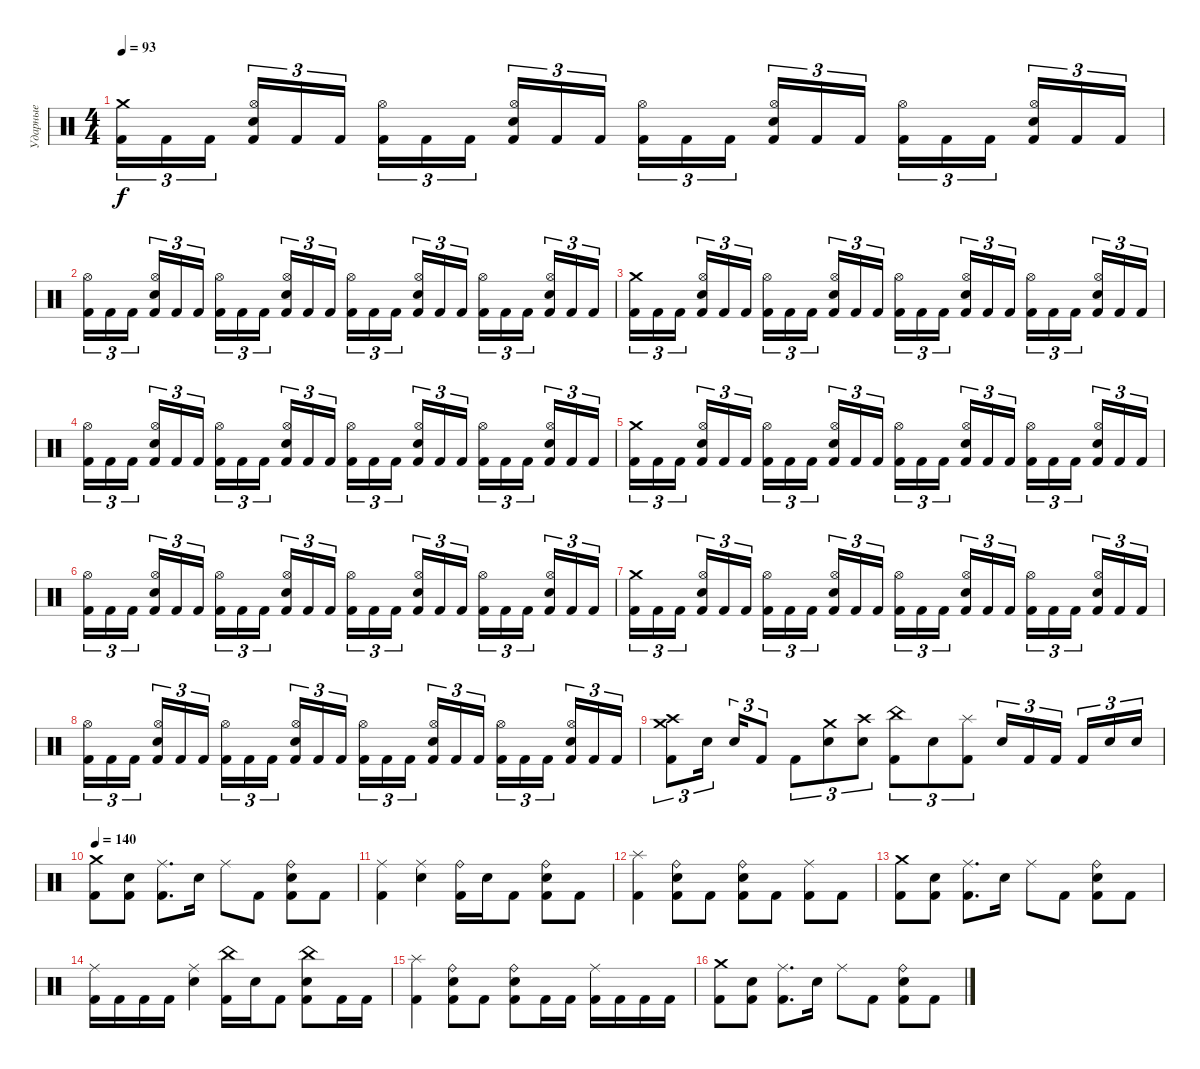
\track ("Ударные" "Ударные") {instrument percussion}
\staff {score}
\articulation defaults
\ts (4 4)
\tempo 93
\clef neutral
\ks c
("Crash medium (hit)" "Kick (hit) 2").16{tu (3 2) dy f} "Kick (hit) 2".16{tu (3 2)} "Kick (hit) 2".16{tu (3 2) beam splitsecondary} ("Hi-Hat (open)" "Electric Snare (hit)" "Kick (hit) 2").16{tu (3 2)} "Kick (hit) 2".16{tu (3 2)} "Kick (hit) 2".16{tu (3 2)} ("Hi-Hat (open)" "Kick (hit) 2").16{tu (3 2)} "Kick (hit) 2".16{tu (3 2)} "Kick (hit) 2".16{tu (3 2) beam splitsecondary} ("Hi-Hat (open)" "Electric Snare (hit)" "Kick (hit) 2").16{tu (3 2)} "Kick (hit) 2".16{tu (3 2)} "Kick (hit) 2".16{tu (3 2)} ("Hi-Hat (open)" "Kick (hit) 2").16{tu (3 2)} "Kick (hit) 2".16{tu (3 2)} "Kick (hit) 2".16{tu (3 2) beam splitsecondary} ("Hi-Hat (open)" "Electric Snare (hit)" "Kick (hit) 2").16{tu (3 2)} "Kick (hit) 2".16{tu (3 2)} "Kick (hit) 2".16{tu (3 2)} ("Hi-Hat (open)" "Kick (hit) 2").16{tu (3 2)} "Kick (hit) 2".16{tu (3 2)} "Kick (hit) 2".16{tu (3 2) beam splitsecondary} ("Hi-Hat (open)" "Electric Snare (hit)" "Kick (hit) 2").16{tu (3 2)} "Kick (hit) 2".16{tu (3 2)} "Kick (hit) 2".16{tu (3 2)} |
("Hi-Hat (open)" "Kick (hit) 2").16{tu (3 2)} "Kick (hit) 2".16{tu (3 2)} "Kick (hit) 2".16{tu (3 2) beam splitsecondary} ("Hi-Hat (open)" "Electric Snare (hit)" "Kick (hit) 2").16{tu (3 2)} "Kick (hit) 2".16{tu (3 2)} "Kick (hit) 2".16{tu (3 2)} ("Hi-Hat (open)" "Kick (hit) 2").16{tu (3 2)} "Kick (hit) 2".16{tu (3 2)} "Kick (hit) 2".16{tu (3 2) beam splitsecondary} ("Hi-Hat (open)" "Electric Snare (hit)" "Kick (hit) 2").16{tu (3 2)} "Kick (hit) 2".16{tu (3 2)} "Kick (hit) 2".16{tu (3 2)} ("Hi-Hat (open)" "Kick (hit) 2").16{tu (3 2)} "Kick (hit) 2".16{tu (3 2)} "Kick (hit) 2".16{tu (3 2) beam splitsecondary} ("Hi-Hat (open)" "Electric Snare (hit)" "Kick (hit) 2").16{tu (3 2)} "Kick (hit) 2".16{tu (3 2)} "Kick (hit) 2".16{tu (3 2)} ("Hi-Hat (open)" "Kick (hit) 2").16{tu (3 2)} "Kick (hit) 2".16{tu (3 2)} "Kick (hit) 2".16{tu (3 2) beam splitsecondary} ("Hi-Hat (open)" "Electric Snare (hit)" "Kick (hit) 2").16{tu (3 2)} "Kick (hit) 2".16{tu (3 2)} "Kick (hit) 2".16{tu (3 2)} |
("Crash medium (hit)" "Kick (hit) 2").16{tu (3 2)} "Kick (hit) 2".16{tu (3 2)} "Kick (hit) 2".16{tu (3 2) beam splitsecondary} ("Hi-Hat (open)" "Electric Snare (hit)" "Kick (hit) 2").16{tu (3 2)} "Kick (hit) 2".16{tu (3 2)} "Kick (hit) 2".16{tu (3 2)} ("Hi-Hat (open)" "Kick (hit) 2").16{tu (3 2)} "Kick (hit) 2".16{tu (3 2)} "Kick (hit) 2".16{tu (3 2) beam splitsecondary} ("Hi-Hat (open)" "Electric Snare (hit)" "Kick (hit) 2").16{tu (3 2)} "Kick (hit) 2".16{tu (3 2)} "Kick (hit) 2".16{tu (3 2)} ("Hi-Hat (open)" "Kick (hit) 2").16{tu (3 2)} "Kick (hit) 2".16{tu (3 2)} "Kick (hit) 2".16{tu (3 2) beam splitsecondary} ("Hi-Hat (open)" "Electric Snare (hit)" "Kick (hit) 2").16{tu (3 2)} "Kick (hit) 2".16{tu (3 2)} "Kick (hit) 2".16{tu (3 2)} ("Hi-Hat (open)" "Kick (hit) 2").16{tu (3 2)} "Kick (hit) 2".16{tu (3 2)} "Kick (hit) 2".16{tu (3 2) beam splitsecondary} ("Hi-Hat (open)" "Electric Snare (hit)" "Kick (hit) 2").16{tu (3 2)} "Kick (hit) 2".16{tu (3 2)} "Kick (hit) 2".16{tu (3 2)} |
("Hi-Hat (open)" "Kick (hit) 2").16{tu (3 2)} "Kick (hit) 2".16{tu (3 2)} "Kick (hit) 2".16{tu (3 2) beam splitsecondary} ("Hi-Hat (open)" "Electric Snare (hit)" "Kick (hit) 2").16{tu (3 2)} "Kick (hit) 2".16{tu (3 2)} "Kick (hit) 2".16{tu (3 2)} ("Hi-Hat (open)" "Kick (hit) 2").16{tu (3 2)} "Kick (hit) 2".16{tu (3 2)} "Kick (hit) 2".16{tu (3 2) beam splitsecondary} ("Hi-Hat (open)" "Electric Snare (hit)" "Kick (hit) 2").16{tu (3 2)} "Kick (hit) 2".16{tu (3 2)} "Kick (hit) 2".16{tu (3 2)} ("Hi-Hat (open)" "Kick (hit) 2").16{tu (3 2)} "Kick (hit) 2".16{tu (3 2)} "Kick (hit) 2".16{tu (3 2) beam splitsecondary} ("Hi-Hat (open)" "Electric Snare (hit)" "Kick (hit) 2").16{tu (3 2)} "Kick (hit) 2".16{tu (3 2)} "Kick (hit) 2".16{tu (3 2)} ("Hi-Hat (open)" "Kick (hit) 2").16{tu (3 2)} "Kick (hit) 2".16{tu (3 2)} "Kick (hit) 2".16{tu (3 2) beam splitsecondary} ("Hi-Hat (open)" "Electric Snare (hit)" "Kick (hit) 2").16{tu (3 2)} "Kick (hit) 2".16{tu (3 2)} "Kick (hit) 2".16{tu (3 2)} |
("Crash medium (hit)" "Kick (hit) 2").16{tu (3 2)} "Kick (hit) 2".16{tu (3 2)} "Kick (hit) 2".16{tu (3 2) beam splitsecondary} ("Hi-Hat (open)" "Electric Snare (hit)" "Kick (hit) 2").16{tu (3 2)} "Kick (hit) 2".16{tu (3 2)} "Kick (hit) 2".16{tu (3 2)} ("Hi-Hat (open)" "Kick (hit) 2").16{tu (3 2)} "Kick (hit) 2".16{tu (3 2)} "Kick (hit) 2".16{tu (3 2) beam splitsecondary} ("Hi-Hat (open)" "Electric Snare (hit)" "Kick (hit) 2").16{tu (3 2)} "Kick (hit) 2".16{tu (3 2)} "Kick (hit) 2".16{tu (3 2)} ("Hi-Hat (open)" "Kick (hit) 2").16{tu (3 2)} "Kick (hit) 2".16{tu (3 2)} "Kick (hit) 2".16{tu (3 2) beam splitsecondary} ("Hi-Hat (open)" "Electric Snare (hit)" "Kick (hit) 2").16{tu (3 2)} "Kick (hit) 2".16{tu (3 2)} "Kick (hit) 2".16{tu (3 2)} ("Hi-Hat (open)" "Kick (hit) 2").16{tu (3 2)} "Kick (hit) 2".16{tu (3 2)} "Kick (hit) 2".16{tu (3 2) beam splitsecondary} ("Hi-Hat (open)" "Electric Snare (hit)" "Kick (hit) 2").16{tu (3 2)} "Kick (hit) 2".16{tu (3 2)} "Kick (hit) 2".16{tu (3 2)} |
("Hi-Hat (open)" "Kick (hit) 2").16{tu (3 2)} "Kick (hit) 2".16{tu (3 2)} "Kick (hit) 2".16{tu (3 2) beam splitsecondary} ("Hi-Hat (open)" "Electric Snare (hit)" "Kick (hit) 2").16{tu (3 2)} "Kick (hit) 2".16{tu (3 2)} "Kick (hit) 2".16{tu (3 2)} ("Hi-Hat (open)" "Kick (hit) 2").16{tu (3 2)} "Kick (hit) 2".16{tu (3 2)} "Kick (hit) 2".16{tu (3 2) beam splitsecondary} ("Hi-Hat (open)" "Electric Snare (hit)" "Kick (hit) 2").16{tu (3 2)} "Kick (hit) 2".16{tu (3 2)} "Kick (hit) 2".16{tu (3 2)} ("Hi-Hat (open)" "Kick (hit) 2").16{tu (3 2)} "Kick (hit) 2".16{tu (3 2)} "Kick (hit) 2".16{tu (3 2) beam splitsecondary} ("Hi-Hat (open)" "Electric Snare (hit)" "Kick (hit) 2").16{tu (3 2)} "Kick (hit) 2".16{tu (3 2)} "Kick (hit) 2".16{tu (3 2)} ("Hi-Hat (open)" "Kick (hit) 2").16{tu (3 2)} "Kick (hit) 2".16{tu (3 2)} "Kick (hit) 2".16{tu (3 2) beam splitsecondary} ("Hi-Hat (open)" "Electric Snare (hit)" "Kick (hit) 2").16{tu (3 2)} "Kick (hit) 2".16{tu (3 2)} "Kick (hit) 2".16{tu (3 2)} |
("Crash medium (hit)" "Kick (hit) 2").16{tu (3 2)} "Kick (hit) 2".16{tu (3 2)} "Kick (hit) 2".16{tu (3 2) beam splitsecondary} ("Hi-Hat (open)" "Electric Snare (hit)" "Kick (hit) 2").16{tu (3 2)} "Kick (hit) 2".16{tu (3 2)} "Kick (hit) 2".16{tu (3 2)} ("Hi-Hat (open)" "Kick (hit) 2").16{tu (3 2)} "Kick (hit) 2".16{tu (3 2)} "Kick (hit) 2".16{tu (3 2) beam splitsecondary} ("Hi-Hat (open)" "Electric Snare (hit)" "Kick (hit) 2").16{tu (3 2)} "Kick (hit) 2".16{tu (3 2)} "Kick (hit) 2".16{tu (3 2)} ("Hi-Hat (open)" "Kick (hit) 2").16{tu (3 2)} "Kick (hit) 2".16{tu (3 2)} "Kick (hit) 2".16{tu (3 2) beam splitsecondary} ("Hi-Hat (open)" "Electric Snare (hit)" "Kick (hit) 2").16{tu (3 2)} "Kick (hit) 2".16{tu (3 2)} "Kick (hit) 2".16{tu (3 2)} ("Hi-Hat (open)" "Kick (hit) 2").16{tu (3 2)} "Kick (hit) 2".16{tu (3 2)} "Kick (hit) 2".16{tu (3 2) beam splitsecondary} ("Hi-Hat (open)" "Electric Snare (hit)" "Kick (hit) 2").16{tu (3 2)} "Kick (hit) 2".16{tu (3 2)} "Kick (hit) 2".16{tu (3 2)} |
("Hi-Hat (open)" "Kick (hit) 2").16{tu (3 2)} "Kick (hit) 2".16{tu (3 2)} "Kick (hit) 2".16{tu (3 2) beam splitsecondary} ("Hi-Hat (open)" "Electric Snare (hit)" "Kick (hit) 2").16{tu (3 2)} "Kick (hit) 2".16{tu (3 2)} "Kick (hit) 2".16{tu (3 2)} ("Hi-Hat (open)" "Kick (hit) 2").16{tu (3 2)} "Kick (hit) 2".16{tu (3 2)} "Kick (hit) 2".16{tu (3 2) beam splitsecondary} ("Hi-Hat (open)" "Electric Snare (hit)" "Kick (hit) 2").16{tu (3 2)} "Kick (hit) 2".16{tu (3 2)} "Kick (hit) 2".16{tu (3 2)} ("Hi-Hat (open)" "Kick (hit) 2").16{tu (3 2)} "Kick (hit) 2".16{tu (3 2)} "Kick (hit) 2".16{tu (3 2) beam splitsecondary} ("Hi-Hat (open)" "Electric Snare (hit)" "Kick (hit) 2").16{tu (3 2)} "Kick (hit) 2".16{tu (3 2)} "Kick (hit) 2".16{tu (3 2)} ("Hi-Hat (open)" "Kick (hit) 2").16{tu (3 2)} "Kick (hit) 2".16{tu (3 2)} "Kick (hit) 2".16{tu (3 2) beam splitsecondary} ("Hi-Hat (open)" "Electric Snare (hit)" "Kick (hit) 2").16{tu (3 2)} "Kick (hit) 2".16{tu (3 2)} "Kick (hit) 2".16{tu (3 2)} |
("Crash medium (hit)" "Crash high (hit)" "Kick (hit) 2").8{tu (3 2)} "Electric Snare (hit)".16{tu (3 2) beam splitsecondary} "Electric Snare (hit)".16{tu (3 2)} "Kick (hit) 2".8{tu (3 2)} "Kick (hit) 2".8{tu (3 2)} ("Crash medium (hit)" "Electric Snare (hit)").8{tu (3 2)} ("Crash high (hit)" "Electric Snare (hit)").8{tu (3 2)} ("China (hit)" "Kick (hit) 2").8{tu (3 2)} "Electric Snare (hit)".8{tu (3 2)} ("Splash (hit)" "Kick (hit) 2").8{tu (3 2)} "Electric Snare (hit)".16{tu (3 2)} "Kick (hit) 2".16{tu (3 2)} "Kick (hit) 2".16{tu (3 2) beam splitsecondary} "Kick (hit) 2".16{tu (3 2)} "Electric Snare (hit)".16{tu (3 2)} "Electric Snare (hit)".16{tu (3 2)} |
\tempo 140
("Crash medium (hit)" "Kick (hit) 2").8 ("Electric Snare (hit)" "Kick (hit) 2").8 ("Ride (middle)" "Kick (hit) 2").8{d} "Electric Snare (hit)".16 "Ride (middle)".8 "Kick (hit) 2".8 ("Ride (bell)" "Electric Snare (hit)" "Kick (hit) 2").8 "Kick (hit) 2".8 |
("Ride (middle)" "Kick (hit) 2").4 ("Ride (middle)" "Electric Snare (hit)").4 ("Ride (bell)" "Kick (hit) 2").16 "Electric Snare (hit)".16 "Kick (hit) 2".8 ("Ride (bell)" "Electric Snare (hit)" "Kick (hit) 2").8 "Kick (hit) 2".8 |
("Splash (hit)" "Kick (hit) 2").4 ("Ride (bell)" "Electric Snare (hit)" "Kick (hit) 2").8 "Kick (hit) 2".8 ("Ride (bell)" "Electric Snare (hit)" "Kick (hit) 2").8 "Kick (hit) 2".8 ("Ride (middle)" "Kick (hit) 2").8 "Kick (hit) 2".8 |
("Crash medium (hit)" "Kick (hit) 2").8 ("Electric Snare (hit)" "Kick (hit) 2").8 ("Ride (middle)" "Kick (hit) 2").8{d} "Electric Snare (hit)".16 "Ride (middle)".8 "Kick (hit) 2".8 ("Ride (bell)" "Electric Snare (hit)" "Kick (hit) 2").8 "Kick (hit) 2".8 |
("Ride (middle)" "Kick (hit) 2").16 "Kick (hit) 2".16 "Kick (hit) 2".16 "Kick (hit) 2".16 ("Ride (middle)" "Electric Snare (hit)").4 ("China (hit)" "Kick (hit) 2").16 "Electric Snare (hit)".16 "Kick (hit) 2".8 ("China (hit)" "Electric Snare (hit)" "Kick (hit) 2").8 "Kick (hit) 2".16 "Kick (hit) 2".16 |
("Splash (hit)" "Kick (hit) 2").4 ("Ride (bell)" "Electric Snare (hit)" "Kick (hit) 2").8 "Kick (hit) 2".8 ("Ride (bell)" "Electric Snare (hit)" "Kick (hit) 2").8 "Kick (hit) 2".16 "Kick (hit) 2".16 ("Ride (middle)" "Kick (hit) 2").16 "Kick (hit) 2".16 "Kick (hit) 2".16 "Kick (hit) 2".16 |
("Crash medium (hit)" "Kick (hit) 2").8 ("Electric Snare (hit)" "Kick (hit) 2").8 ("Ride (middle)" "Kick (hit) 2").8{d} "Electric Snare (hit)".16 "Ride (middle)".8 "Kick (hit) 2".8 ("Ride (bell)" "Electric Snare (hit)" "Kick (hit) 2").8 "Kick (hit) 2".8
